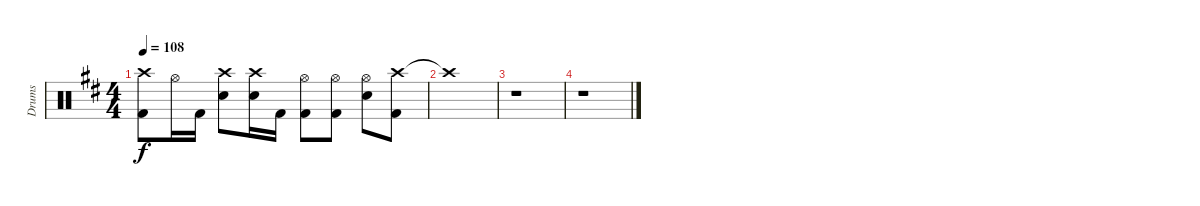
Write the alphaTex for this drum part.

\track ("Drums" "Drums") {instrument percussion}
\staff {score}
\articulation defaults
\ts (4 4)
\tempo 108
\clef neutral
\ks d
("Crash high (hit)" "Kick (hit) 2").8{dy f} "Hi-Hat (open)".16 "Kick (hit) 2".16 ("Crash high (hit)" "Snare (hit) 2").8 ("Crash high (hit)" "Snare (hit) 2").16 "Kick (hit) 2".16 ("Hi-Hat (open)" "Kick (hit) 2").8 ("Hi-Hat (open)" "Kick (hit) 2").8 ("Hi-Hat (open)" "Snare (hit) 2").8 ("Crash high (hit)" "Kick (hit) 2").8 |
"Crash high (hit)"{t}.1 |
r.1 |
r.1
